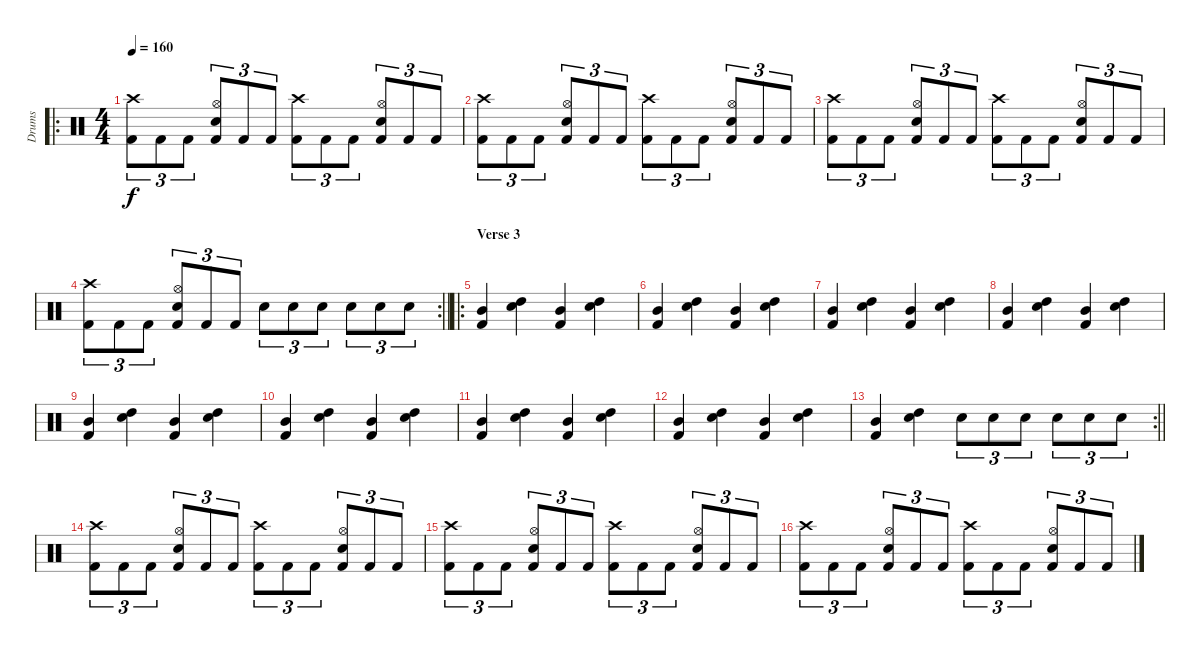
\track ("Drums" "Drums") {instrument percussion}
\staff {score}
\articulation defaults
\ro
\ts (4 4)
\tempo 160
\clef neutral
\ks c
("Crash high (hit)" "Kick (hit) 2").8{tu (3 2) dy f} "Kick (hit) 2".8{tu (3 2)} "Kick (hit) 2".8{tu (3 2)} ("Hi-Hat (open)" "Snare (hit) 2" "Kick (hit) 2").8{tu (3 2)} "Kick (hit) 2".8{tu (3 2)} "Kick (hit) 2".8{tu (3 2)} ("Crash high (hit)" "Kick (hit) 2").8{tu (3 2)} "Kick (hit) 2".8{tu (3 2)} "Kick (hit) 2".8{tu (3 2)} ("Hi-Hat (open)" "Snare (hit) 2" "Kick (hit) 2").8{tu (3 2)} "Kick (hit) 2".8{tu (3 2)} "Kick (hit) 2".8{tu (3 2)} |
("Crash high (hit)" "Kick (hit) 2").8{tu (3 2)} "Kick (hit) 2".8{tu (3 2)} "Kick (hit) 2".8{tu (3 2)} ("Hi-Hat (open)" "Snare (hit) 2" "Kick (hit) 2").8{tu (3 2)} "Kick (hit) 2".8{tu (3 2)} "Kick (hit) 2".8{tu (3 2)} ("Crash high (hit)" "Kick (hit) 2").8{tu (3 2)} "Kick (hit) 2".8{tu (3 2)} "Kick (hit) 2".8{tu (3 2)} ("Hi-Hat (open)" "Snare (hit) 2" "Kick (hit) 2").8{tu (3 2)} "Kick (hit) 2".8{tu (3 2)} "Kick (hit) 2".8{tu (3 2)} |
("Crash high (hit)" "Kick (hit) 2").8{tu (3 2)} "Kick (hit) 2".8{tu (3 2)} "Kick (hit) 2".8{tu (3 2)} ("Hi-Hat (open)" "Snare (hit) 2" "Kick (hit) 2").8{tu (3 2)} "Kick (hit) 2".8{tu (3 2)} "Kick (hit) 2".8{tu (3 2)} ("Crash high (hit)" "Kick (hit) 2").8{tu (3 2)} "Kick (hit) 2".8{tu (3 2)} "Kick (hit) 2".8{tu (3 2)} ("Hi-Hat (open)" "Snare (hit) 2" "Kick (hit) 2").8{tu (3 2)} "Kick (hit) 2".8{tu (3 2)} "Kick (hit) 2".8{tu (3 2)} |
\rc 2
\barLineRight lightlight
("Crash high (hit)" "Kick (hit) 2").8{tu (3 2)} "Kick (hit) 2".8{tu (3 2)} "Kick (hit) 2".8{tu (3 2)} ("Hi-Hat (open)" "Snare (hit) 2" "Kick (hit) 2").8{tu (3 2)} "Kick (hit) 2".8{tu (3 2)} "Kick (hit) 2".8{tu (3 2)} "Snare (hit) 2".8{tu (3 2)} "Snare (hit) 2".8{tu (3 2)} "Snare (hit) 2".8{tu (3 2)} "Snare (hit) 2".8{tu (3 2)} "Snare (hit) 2".8{tu (3 2)} "Snare (hit) 2".8{tu (3 2)} |
\ro
\section ("" "Verse 3")
("Mid Tom (hit)" "Kick (hit) 2").4 ("High Tom (hit)" "Snare (hit) 2").4 ("Mid Tom (hit)" "Kick (hit) 2").4 ("High Tom (hit)" "Snare (hit) 2").4 |
("Mid Tom (hit)" "Kick (hit) 2").4 ("High Tom (hit)" "Snare (hit) 2").4 ("Mid Tom (hit)" "Kick (hit) 2").4 ("High Tom (hit)" "Snare (hit) 2").4 |
("Mid Tom (hit)" "Kick (hit) 2").4 ("High Tom (hit)" "Snare (hit) 2").4 ("Mid Tom (hit)" "Kick (hit) 2").4 ("High Tom (hit)" "Snare (hit) 2").4 |
("Mid Tom (hit)" "Kick (hit) 2").4 ("High Tom (hit)" "Snare (hit) 2").4 ("Mid Tom (hit)" "Kick (hit) 2").4 ("High Tom (hit)" "Snare (hit) 2").4 |
("Mid Tom (hit)" "Kick (hit) 2").4 ("High Tom (hit)" "Snare (hit) 2").4 ("Mid Tom (hit)" "Kick (hit) 2").4 ("High Tom (hit)" "Snare (hit) 2").4 |
("Mid Tom (hit)" "Kick (hit) 2").4 ("High Tom (hit)" "Snare (hit) 2").4 ("Mid Tom (hit)" "Kick (hit) 2").4 ("High Tom (hit)" "Snare (hit) 2").4 |
("Mid Tom (hit)" "Kick (hit) 2").4 ("High Tom (hit)" "Snare (hit) 2").4 ("Mid Tom (hit)" "Kick (hit) 2").4 ("High Tom (hit)" "Snare (hit) 2").4 |
("Mid Tom (hit)" "Kick (hit) 2").4 ("High Tom (hit)" "Snare (hit) 2").4 ("Mid Tom (hit)" "Kick (hit) 2").4 ("High Tom (hit)" "Snare (hit) 2").4 |
\rc 2
\barLineRight lightlight
("Mid Tom (hit)" "Kick (hit) 2").4 ("High Tom (hit)" "Snare (hit) 2").4 "Snare (hit) 2".8{tu (3 2)} "Snare (hit) 2".8{tu (3 2)} "Snare (hit) 2".8{tu (3 2)} "Snare (hit) 2".8{tu (3 2)} "Snare (hit) 2".8{tu (3 2)} "Snare (hit) 2".8{tu (3 2)} |
("Crash high (hit)" "Kick (hit) 2").8{tu (3 2)} "Kick (hit) 2".8{tu (3 2)} "Kick (hit) 2".8{tu (3 2)} ("Hi-Hat (open)" "Snare (hit) 2" "Kick (hit) 2").8{tu (3 2)} "Kick (hit) 2".8{tu (3 2)} "Kick (hit) 2".8{tu (3 2)} ("Crash high (hit)" "Kick (hit) 2").8{tu (3 2)} "Kick (hit) 2".8{tu (3 2)} "Kick (hit) 2".8{tu (3 2)} ("Hi-Hat (open)" "Snare (hit) 2" "Kick (hit) 2").8{tu (3 2)} "Kick (hit) 2".8{tu (3 2)} "Kick (hit) 2".8{tu (3 2)} |
("Crash high (hit)" "Kick (hit) 2").8{tu (3 2)} "Kick (hit) 2".8{tu (3 2)} "Kick (hit) 2".8{tu (3 2)} ("Hi-Hat (open)" "Snare (hit) 2" "Kick (hit) 2").8{tu (3 2)} "Kick (hit) 2".8{tu (3 2)} "Kick (hit) 2".8{tu (3 2)} ("Crash high (hit)" "Kick (hit) 2").8{tu (3 2)} "Kick (hit) 2".8{tu (3 2)} "Kick (hit) 2".8{tu (3 2)} ("Hi-Hat (open)" "Snare (hit) 2" "Kick (hit) 2").8{tu (3 2)} "Kick (hit) 2".8{tu (3 2)} "Kick (hit) 2".8{tu (3 2)} |
("Crash high (hit)" "Kick (hit) 2").8{tu (3 2)} "Kick (hit) 2".8{tu (3 2)} "Kick (hit) 2".8{tu (3 2)} ("Hi-Hat (open)" "Snare (hit) 2" "Kick (hit) 2").8{tu (3 2)} "Kick (hit) 2".8{tu (3 2)} "Kick (hit) 2".8{tu (3 2)} ("Crash high (hit)" "Kick (hit) 2").8{tu (3 2)} "Kick (hit) 2".8{tu (3 2)} "Kick (hit) 2".8{tu (3 2)} ("Hi-Hat (open)" "Snare (hit) 2" "Kick (hit) 2").8{tu (3 2)} "Kick (hit) 2".8{tu (3 2)} "Kick (hit) 2".8{tu (3 2)}
